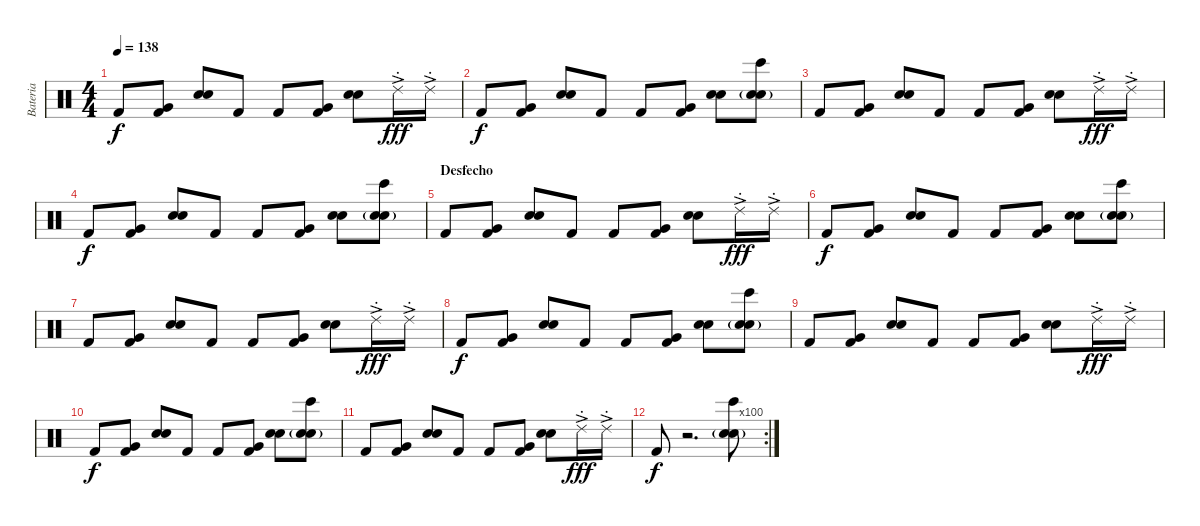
\track ("Bateria" "Bateria") {instrument percussion}
\staff {score}
\articulation defaults
\ts (4 4)
\tempo 138
\clef neutral
\ks c "Kick (hit) 2".8{dy f}
("Very Low Tom (hit)" "Kick (hit) 2").8 ("Snare (hit) 2" "Electric Snare (hit)").8 "Kick (hit) 2".8 "Kick (hit) 2".8 ("Very Low Tom (hit)" "Kick (hit) 2").8 ("Snare (hit) 2" "Electric Snare (hit)").8 "Ride (choke) 2"{ac}.16{dy fff} "Ride (choke) 2"{ac}.16 |
"Kick (hit) 2".8{dy f} ("Very Low Tom (hit)" "Kick (hit) 2").8 ("Snare (hit) 2" "Electric Snare (hit)").8 "Kick (hit) 2".8 "Kick (hit) 2".8 ("Very Low Tom (hit)" "Kick (hit) 2").8 ("Snare (hit) 2" "Electric Snare (hit)").8 ("Bongo High (hit)" "Hand Clap (hit)" "Snare (hit) 2"{g}).8 |
"Kick (hit) 2".8 ("Very Low Tom (hit)" "Kick (hit) 2").8 ("Snare (hit) 2" "Electric Snare (hit)").8 "Kick (hit) 2".8 "Kick (hit) 2".8 ("Very Low Tom (hit)" "Kick (hit) 2").8 ("Snare (hit) 2" "Electric Snare (hit)").8 "Ride (choke) 2"{ac}.16{dy fff} "Ride (choke) 2"{ac}.16 |
"Kick (hit) 2".8{dy f} ("Very Low Tom (hit)" "Kick (hit) 2").8 ("Snare (hit) 2" "Electric Snare (hit)").8 "Kick (hit) 2".8 "Kick (hit) 2".8 ("Very Low Tom (hit)" "Kick (hit) 2").8 ("Snare (hit) 2" "Electric Snare (hit)").8 ("Bongo High (hit)" "Hand Clap (hit)" "Snare (hit) 2"{g}).8 |
\section ("" "Desfecho")
"Kick (hit) 2".8 ("Very Low Tom (hit)" "Kick (hit) 2").8 ("Snare (hit) 2" "Electric Snare (hit)").8 "Kick (hit) 2".8 "Kick (hit) 2".8 ("Very Low Tom (hit)" "Kick (hit) 2").8 ("Snare (hit) 2" "Electric Snare (hit)").8 "Ride (choke) 2"{ac}.16{dy fff} "Ride (choke) 2"{ac}.16 |
"Kick (hit) 2".8{dy f} ("Very Low Tom (hit)" "Kick (hit) 2").8 ("Snare (hit) 2" "Electric Snare (hit)").8 "Kick (hit) 2".8 "Kick (hit) 2".8 ("Very Low Tom (hit)" "Kick (hit) 2").8 ("Snare (hit) 2" "Electric Snare (hit)").8 ("Bongo High (hit)" "Hand Clap (hit)" "Snare (hit) 2"{g}).8 |
"Kick (hit) 2".8 ("Very Low Tom (hit)" "Kick (hit) 2").8 ("Snare (hit) 2" "Electric Snare (hit)").8 "Kick (hit) 2".8 "Kick (hit) 2".8 ("Very Low Tom (hit)" "Kick (hit) 2").8 ("Snare (hit) 2" "Electric Snare (hit)").8 "Ride (choke) 2"{ac}.16{dy fff} "Ride (choke) 2"{ac}.16 |
"Kick (hit) 2".8{dy f} ("Very Low Tom (hit)" "Kick (hit) 2").8 ("Snare (hit) 2" "Electric Snare (hit)").8 "Kick (hit) 2".8 "Kick (hit) 2".8 ("Very Low Tom (hit)" "Kick (hit) 2").8 ("Snare (hit) 2" "Electric Snare (hit)").8 ("Bongo High (hit)" "Hand Clap (hit)" "Snare (hit) 2"{g}).8 |
"Kick (hit) 2".8 ("Very Low Tom (hit)" "Kick (hit) 2").8 ("Snare (hit) 2" "Electric Snare (hit)").8 "Kick (hit) 2".8 "Kick (hit) 2".8 ("Very Low Tom (hit)" "Kick (hit) 2").8 ("Snare (hit) 2" "Electric Snare (hit)").8 "Ride (choke) 2"{ac}.16{dy fff} "Ride (choke) 2"{ac}.16 |
"Kick (hit) 2".8{dy f} ("Very Low Tom (hit)" "Kick (hit) 2").8 ("Snare (hit) 2" "Electric Snare (hit)").8 "Kick (hit) 2".8 "Kick (hit) 2".8 ("Very Low Tom (hit)" "Kick (hit) 2").8 ("Snare (hit) 2" "Electric Snare (hit)").8 ("Bongo High (hit)" "Hand Clap (hit)" "Snare (hit) 2"{g}).8 |
"Kick (hit) 2".8 ("Very Low Tom (hit)" "Kick (hit) 2").8 ("Snare (hit) 2" "Electric Snare (hit)").8 "Kick (hit) 2".8 "Kick (hit) 2".8 ("Very Low Tom (hit)" "Kick (hit) 2").8 ("Snare (hit) 2" "Electric Snare (hit)").8 "Ride (choke) 2"{ac}.16{dy fff} "Ride (choke) 2"{ac}.16 |
\rc 100 "Kick (hit) 2".8{dy f}
r.2{d} ("Bongo High (hit)" "Hand Clap (hit)" "Snare (hit) 2"{g}).8
